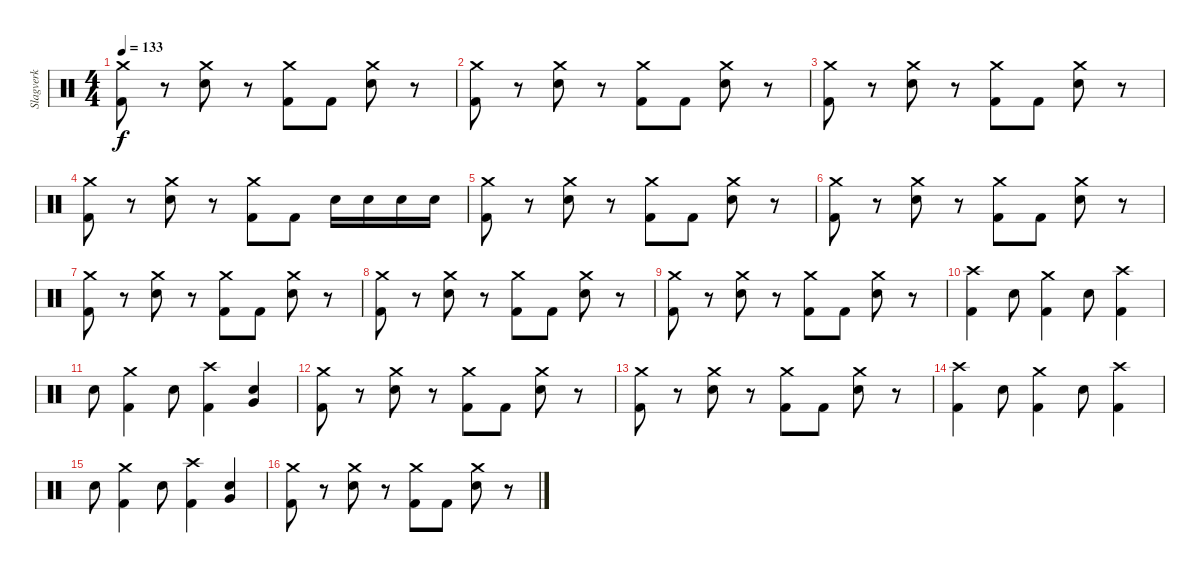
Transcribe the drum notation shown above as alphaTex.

\track ("Slagverk" "Slagverk") {instrument percussion}
\staff {score}
\articulation defaults
\ts (4 4)
\tempo 133
\clef neutral
\ks c
("Crash medium (hit)" "Kick (hit) 2").8{dy f} r.8 ("Crash medium (hit)" "Snare (hit) 2").8 r.8 ("Crash medium (hit)" "Kick (hit) 2").8 "Kick (hit) 2".8 ("Crash medium (hit)" "Snare (hit) 2").8 r.8 |
("Crash medium (hit)" "Kick (hit) 2").8 r.8 ("Crash medium (hit)" "Snare (hit) 2").8 r.8 ("Crash medium (hit)" "Kick (hit) 2").8 "Kick (hit) 2".8 ("Crash medium (hit)" "Snare (hit) 2").8 r.8 |
("Crash medium (hit)" "Kick (hit) 2").8 r.8 ("Crash medium (hit)" "Snare (hit) 2").8 r.8 ("Crash medium (hit)" "Kick (hit) 2").8 "Kick (hit) 2".8 ("Crash medium (hit)" "Snare (hit) 2").8 r.8 |
("Crash medium (hit)" "Kick (hit) 2").8 r.8 ("Crash medium (hit)" "Snare (hit) 2").8 r.8 ("Crash medium (hit)" "Kick (hit) 2").8 "Kick (hit) 2".8 "Snare (hit) 2".16 "Snare (hit) 2".16 "Snare (hit) 2".16 "Snare (hit) 2".16 |
("Crash medium (hit)" "Kick (hit) 2").8 r.8 ("Crash medium (hit)" "Snare (hit) 2").8 r.8 ("Crash medium (hit)" "Kick (hit) 2").8 "Kick (hit) 2".8 ("Crash medium (hit)" "Snare (hit) 2").8 r.8 |
("Crash medium (hit)" "Kick (hit) 2").8 r.8 ("Crash medium (hit)" "Snare (hit) 2").8 r.8 ("Crash medium (hit)" "Kick (hit) 2").8 "Kick (hit) 2".8 ("Crash medium (hit)" "Snare (hit) 2").8 r.8 |
("Crash medium (hit)" "Kick (hit) 2").8 r.8 ("Crash medium (hit)" "Snare (hit) 2").8 r.8 ("Crash medium (hit)" "Kick (hit) 2").8 "Kick (hit) 2".8 ("Crash medium (hit)" "Snare (hit) 2").8 r.8 |
("Crash medium (hit)" "Kick (hit) 2").8 r.8 ("Crash medium (hit)" "Snare (hit) 2").8 r.8 ("Crash medium (hit)" "Kick (hit) 2").8 "Kick (hit) 2".8 ("Crash medium (hit)" "Snare (hit) 2").8 r.8 |
("Crash medium (hit)" "Kick (hit) 2").8 r.8 ("Crash medium (hit)" "Snare (hit) 2").8 r.8 ("Crash medium (hit)" "Kick (hit) 2").8 "Kick (hit) 2".8 ("Crash medium (hit)" "Snare (hit) 2").8 r.8 |
("Crash high (hit)" "Kick (hit) 2").4 "Snare (hit) 2".8 ("Crash medium (hit)" "Kick (hit) 2").4 "Snare (hit) 2".8 ("Crash high (hit)" "Kick (hit) 2").4 |
"Snare (hit) 2".8 ("Crash medium (hit)" "Kick (hit) 2").4 "Snare (hit) 2".8 ("Crash high (hit)" "Kick (hit) 2").4 ("Very Low Tom (hit)" "Snare (hit) 2").4 |
("Crash medium (hit)" "Kick (hit) 2").8 r.8 ("Crash medium (hit)" "Snare (hit) 2").8 r.8 ("Crash medium (hit)" "Kick (hit) 2").8 "Kick (hit) 2".8 ("Crash medium (hit)" "Snare (hit) 2").8 r.8 |
("Crash medium (hit)" "Kick (hit) 2").8 r.8 ("Crash medium (hit)" "Snare (hit) 2").8 r.8 ("Crash medium (hit)" "Kick (hit) 2").8 "Kick (hit) 2".8 ("Crash medium (hit)" "Snare (hit) 2").8 r.8 |
("Crash high (hit)" "Kick (hit) 2").4 "Snare (hit) 2".8 ("Crash medium (hit)" "Kick (hit) 2").4 "Snare (hit) 2".8 ("Crash high (hit)" "Kick (hit) 2").4 |
"Snare (hit) 2".8 ("Crash medium (hit)" "Kick (hit) 2").4 "Snare (hit) 2".8 ("Crash high (hit)" "Kick (hit) 2").4 ("Very Low Tom (hit)" "Snare (hit) 2").4 |
("Crash medium (hit)" "Kick (hit) 2").8 r.8 ("Crash medium (hit)" "Snare (hit) 2").8 r.8 ("Crash medium (hit)" "Kick (hit) 2").8 "Kick (hit) 2".8 ("Crash medium (hit)" "Snare (hit) 2").8 r.8
